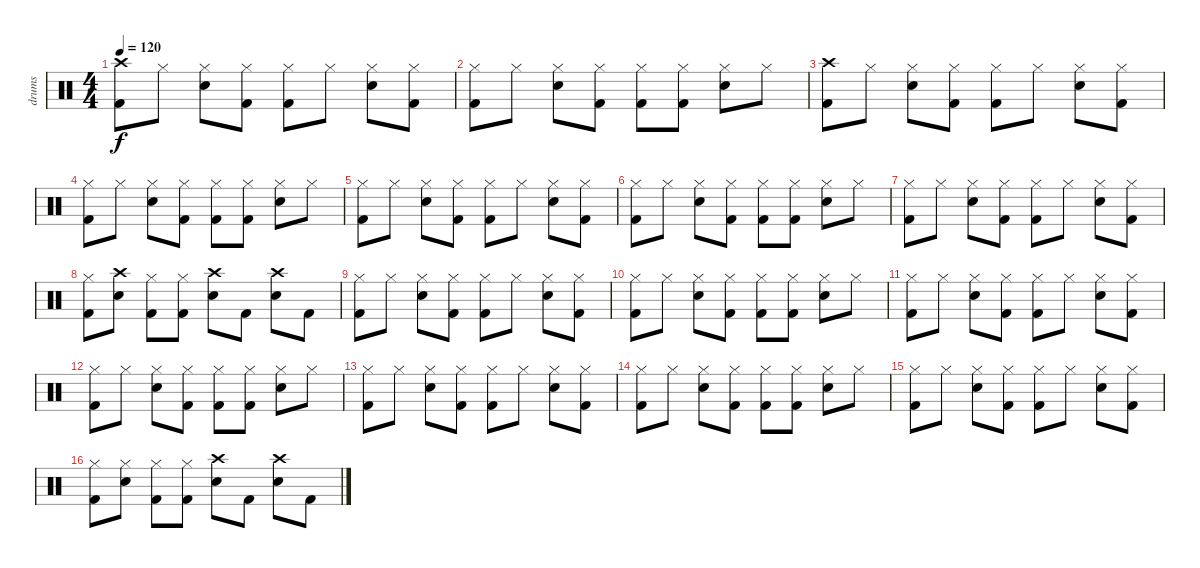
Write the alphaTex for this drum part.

\track ("drums" "drums") {instrument percussion}
\staff {score}
\articulation defaults
\ts (4 4)
\tempo 120
\clef neutral
\ks c
("Crash high (hit)" "Kick (hit) 2").8{dy f} "Hi-Hat (closed)".8 ("Hi-Hat (closed)" "Snare (hit) 2").8 ("Hi-Hat (closed)" "Kick (hit) 2").8 ("Hi-Hat (closed)" "Kick (hit) 2").8 "Hi-Hat (closed)".8 ("Hi-Hat (closed)" "Snare (hit) 2").8 ("Hi-Hat (closed)" "Kick (hit) 2").8 |
("Hi-Hat (closed)" "Kick (hit) 2").8 "Hi-Hat (closed)".8 ("Hi-Hat (closed)" "Snare (hit) 2").8 ("Hi-Hat (closed)" "Kick (hit) 2").8 ("Hi-Hat (closed)" "Kick (hit) 2").8 ("Hi-Hat (closed)" "Kick (hit) 2").8 ("Hi-Hat (closed)" "Snare (hit) 2").8 "Hi-Hat (closed)".8 |
("Crash high (hit)" "Kick (hit) 2").8 "Hi-Hat (closed)".8 ("Hi-Hat (closed)" "Snare (hit) 2").8 ("Hi-Hat (closed)" "Kick (hit) 2").8 ("Hi-Hat (closed)" "Kick (hit) 2").8 "Hi-Hat (closed)".8 ("Hi-Hat (closed)" "Snare (hit) 2").8 ("Hi-Hat (closed)" "Kick (hit) 2").8 |
("Hi-Hat (closed)" "Kick (hit) 2").8 "Hi-Hat (closed)".8 ("Hi-Hat (closed)" "Snare (hit) 2").8 ("Hi-Hat (closed)" "Kick (hit) 2").8 ("Hi-Hat (closed)" "Kick (hit) 2").8 ("Hi-Hat (closed)" "Kick (hit) 2").8 ("Hi-Hat (closed)" "Snare (hit) 2").8 "Hi-Hat (closed)".8 |
("Hi-Hat (closed)" "Kick (hit) 2").8 "Hi-Hat (closed)".8 ("Hi-Hat (closed)" "Snare (hit) 2").8 ("Hi-Hat (closed)" "Kick (hit) 2").8 ("Hi-Hat (closed)" "Kick (hit) 2").8 "Hi-Hat (closed)".8 ("Hi-Hat (closed)" "Snare (hit) 2").8 ("Hi-Hat (closed)" "Kick (hit) 2").8 |
("Hi-Hat (closed)" "Kick (hit) 2").8 "Hi-Hat (closed)".8 ("Hi-Hat (closed)" "Snare (hit) 2").8 ("Hi-Hat (closed)" "Kick (hit) 2").8 ("Hi-Hat (closed)" "Kick (hit) 2").8 ("Hi-Hat (closed)" "Kick (hit) 2").8 ("Hi-Hat (closed)" "Snare (hit) 2").8 "Hi-Hat (closed)".8 |
("Hi-Hat (closed)" "Kick (hit) 2").8 "Hi-Hat (closed)".8 ("Hi-Hat (closed)" "Snare (hit) 2").8 ("Hi-Hat (closed)" "Kick (hit) 2").8 ("Hi-Hat (closed)" "Kick (hit) 2").8 "Hi-Hat (closed)".8 ("Hi-Hat (closed)" "Snare (hit) 2").8 ("Hi-Hat (closed)" "Kick (hit) 2").8 |
("Hi-Hat (closed)" "Kick (hit) 2").8 ("Crash high (hit)" "Snare (hit) 2").8 ("Kick (hit) 2" "Hi-Hat (closed)").8 ("Hi-Hat (closed)" "Kick (hit) 2").8 ("Crash high (hit)" "Snare (hit) 2").8 "Kick (hit) 2".8 ("Snare (hit) 2" "Crash high (hit)").8 "Kick (hit) 2".8 |
("Hi-Hat (closed)" "Kick (hit) 2").8 "Hi-Hat (closed)".8 ("Hi-Hat (closed)" "Snare (hit) 2").8 ("Hi-Hat (closed)" "Kick (hit) 2").8 ("Hi-Hat (closed)" "Kick (hit) 2").8 "Hi-Hat (closed)".8 ("Hi-Hat (closed)" "Snare (hit) 2").8 ("Hi-Hat (closed)" "Kick (hit) 2").8 |
("Hi-Hat (closed)" "Kick (hit) 2").8 "Hi-Hat (closed)".8 ("Hi-Hat (closed)" "Snare (hit) 2").8 ("Hi-Hat (closed)" "Kick (hit) 2").8 ("Hi-Hat (closed)" "Kick (hit) 2").8 ("Hi-Hat (closed)" "Kick (hit) 2").8 ("Hi-Hat (closed)" "Snare (hit) 2").8 "Hi-Hat (closed)".8 |
("Hi-Hat (closed)" "Kick (hit) 2").8 "Hi-Hat (closed)".8 ("Hi-Hat (closed)" "Snare (hit) 2").8 ("Hi-Hat (closed)" "Kick (hit) 2").8 ("Hi-Hat (closed)" "Kick (hit) 2").8 "Hi-Hat (closed)".8 ("Hi-Hat (closed)" "Snare (hit) 2").8 ("Hi-Hat (closed)" "Kick (hit) 2").8 |
("Hi-Hat (closed)" "Kick (hit) 2").8 "Hi-Hat (closed)".8 ("Hi-Hat (closed)" "Snare (hit) 2").8 ("Hi-Hat (closed)" "Kick (hit) 2").8 ("Hi-Hat (closed)" "Kick (hit) 2").8 ("Hi-Hat (closed)" "Kick (hit) 2").8 ("Hi-Hat (closed)" "Snare (hit) 2").8 "Hi-Hat (closed)".8 |
("Hi-Hat (closed)" "Kick (hit) 2").8 "Hi-Hat (closed)".8 ("Hi-Hat (closed)" "Snare (hit) 2").8 ("Hi-Hat (closed)" "Kick (hit) 2").8 ("Hi-Hat (closed)" "Kick (hit) 2").8 "Hi-Hat (closed)".8 ("Hi-Hat (closed)" "Snare (hit) 2").8 ("Hi-Hat (closed)" "Kick (hit) 2").8 |
("Hi-Hat (closed)" "Kick (hit) 2").8 "Hi-Hat (closed)".8 ("Hi-Hat (closed)" "Snare (hit) 2").8 ("Hi-Hat (closed)" "Kick (hit) 2").8 ("Hi-Hat (closed)" "Kick (hit) 2").8 ("Hi-Hat (closed)" "Kick (hit) 2").8 ("Hi-Hat (closed)" "Snare (hit) 2").8 "Hi-Hat (closed)".8 |
("Hi-Hat (closed)" "Kick (hit) 2").8 "Hi-Hat (closed)".8 ("Hi-Hat (closed)" "Snare (hit) 2").8 ("Hi-Hat (closed)" "Kick (hit) 2").8 ("Hi-Hat (closed)" "Kick (hit) 2").8 "Hi-Hat (closed)".8 ("Hi-Hat (closed)" "Snare (hit) 2").8 ("Hi-Hat (closed)" "Kick (hit) 2").8 |
("Hi-Hat (closed)" "Kick (hit) 2").8 ("Hi-Hat (closed)" "Snare (hit) 2").8 ("Hi-Hat (closed)" "Kick (hit) 2").8 ("Hi-Hat (closed)" "Kick (hit) 2").8 ("Crash high (hit)" "Snare (hit) 2").8 "Kick (hit) 2".8 ("Crash high (hit)" "Snare (hit) 2").8 "Kick (hit) 2".8
